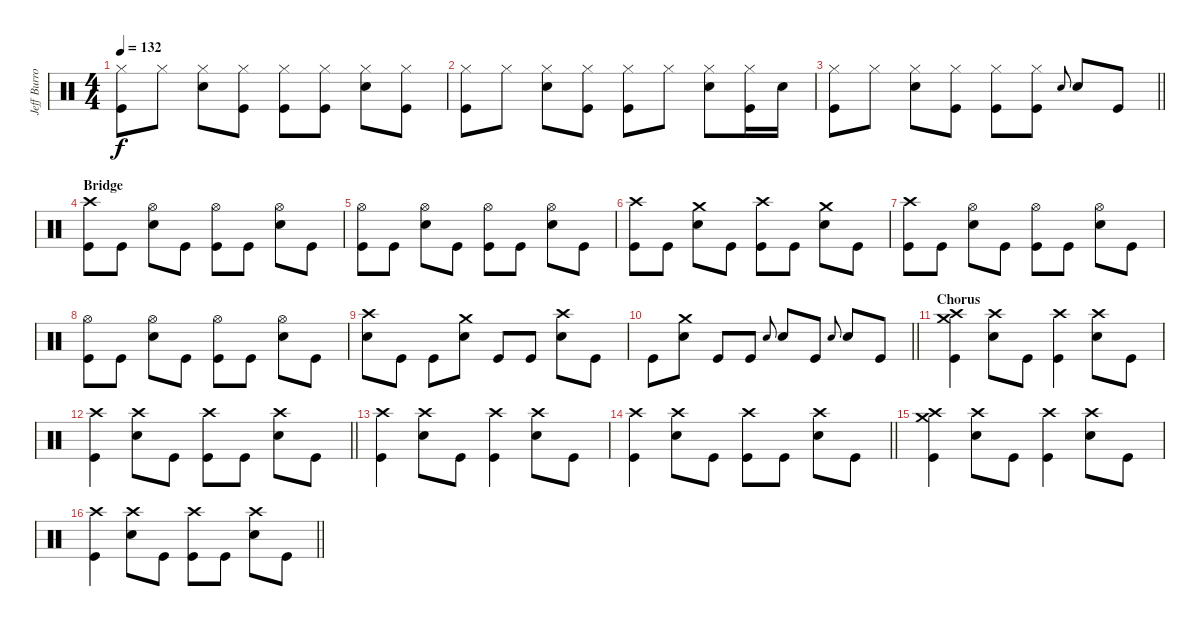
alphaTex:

\track ("Jeff Burrows (Percussion)" "Jeff Burro") {instrument percussion}
\staff {score}
\articulation defaults
\ts (4 4)
\tempo 132
\clef neutral
\ks c
("Hi-Hat (closed)" "Kick (hit)").8{dy f} "Hi-Hat (closed)".8 ("Hi-Hat (closed)" "Snare (hit) 2").8 ("Hi-Hat (closed)" "Kick (hit)").8 ("Hi-Hat (closed)" "Kick (hit)").8 ("Hi-Hat (closed)" "Kick (hit)").8 ("Hi-Hat (closed)" "Snare (hit) 2").8 ("Hi-Hat (closed)" "Kick (hit)").8 |
("Hi-Hat (closed)" "Kick (hit)").8 "Hi-Hat (closed)".8 ("Hi-Hat (closed)" "Snare (hit) 2").8 ("Hi-Hat (closed)" "Kick (hit)").8 ("Hi-Hat (closed)" "Kick (hit)").8 "Hi-Hat (closed)".8 ("Hi-Hat (closed)" "Snare (hit) 2").8 ("Hi-Hat (closed)" "Kick (hit)").16 "Snare (hit) 2".16 |
\barLineRight lightlight
("Hi-Hat (closed)" "Kick (hit)").8 "Hi-Hat (closed)".8 ("Hi-Hat (closed)" "Snare (hit) 2").8 ("Hi-Hat (closed)" "Kick (hit)").8 ("Hi-Hat (closed)" "Kick (hit)").8 ("Hi-Hat (closed)" "Kick (hit)").8 "Snare (hit) 2".8{gr onbeat} "Snare (hit) 2".8 "Kick (hit)".8 |
\section ("" "Bridge")
("Crash high (hit)" "Kick (hit)").8 "Kick (hit)".8 ("Hi-Hat (open)" "Snare (hit) 2").8 "Kick (hit)".8 ("Hi-Hat (open)" "Kick (hit)").8 "Kick (hit)".8 ("Hi-Hat (open)" "Snare (hit) 2").8 "Kick (hit)".8 |
("Hi-Hat (open)" "Kick (hit)").8 "Kick (hit)".8 ("Hi-Hat (open)" "Snare (hit) 2").8 "Kick (hit)".8 ("Hi-Hat (open)" "Kick (hit)").8 "Kick (hit)".8 ("Hi-Hat (open)" "Snare (hit) 2").8 "Kick (hit)".8 |
("Crash high (hit)" "Kick (hit)").8 "Kick (hit)".8 ("Crash medium (hit)" "Snare (hit) 2").8 "Kick (hit)".8 ("Crash high (hit)" "Kick (hit)").8 "Kick (hit)".8 ("Crash medium (hit)" "Snare (hit) 2").8 "Kick (hit)".8 |
("Crash high (hit)" "Kick (hit)").8 "Kick (hit)".8 ("Hi-Hat (open)" "Snare (hit) 2").8 "Kick (hit)".8 ("Hi-Hat (open)" "Kick (hit)").8 "Kick (hit)".8 ("Hi-Hat (open)" "Snare (hit) 2").8 "Kick (hit)".8 |
("Hi-Hat (open)" "Kick (hit)").8 "Kick (hit)".8 ("Hi-Hat (open)" "Snare (hit) 2").8 "Kick (hit)".8 ("Hi-Hat (open)" "Kick (hit)").8 "Kick (hit)".8 ("Hi-Hat (open)" "Snare (hit) 2").8 "Kick (hit)".8 |
("Crash high (hit)" "Snare (hit) 2").8 "Kick (hit)".8 "Kick (hit)".8 ("Crash medium (hit)" "Snare (hit) 2").8 "Kick (hit)".8 "Kick (hit)".8 ("Crash high (hit)" "Snare (hit) 2").8 "Kick (hit)".8 |
\barLineRight lightlight "Kick (hit)".8
("Crash medium (hit)" "Snare (hit) 2").8 "Kick (hit)".8 "Kick (hit)".8 "Snare (hit) 2".8{gr onbeat} "Snare (hit) 2".8 "Kick (hit)".8 "Snare (hit) 2".8{gr onbeat} "Snare (hit) 2".8 "Kick (hit)".8 |
\section ("" "Chorus")
("Crash medium (hit)" "Crash high (hit)" "Kick (hit)").4 ("Crash high (hit)" "Snare (hit) 2").8 "Kick (hit)".8 ("Crash high (hit)" "Kick (hit)").4 ("Crash high (hit)" "Snare (hit) 2").8 "Kick (hit)".8 |
\barLineRight lightlight
("Crash high (hit)" "Kick (hit)").4 ("Crash high (hit)" "Snare (hit) 2").8 "Kick (hit)".8 ("Crash high (hit)" "Kick (hit)").8 "Kick (hit)".8 ("Crash high (hit)" "Snare (hit) 2").8 "Kick (hit)".8 |
("Crash high (hit)" "Kick (hit)").4 ("Crash high (hit)" "Snare (hit) 2").8 "Kick (hit)".8 ("Crash high (hit)" "Kick (hit)").4 ("Crash high (hit)" "Snare (hit) 2").8 "Kick (hit)".8 |
\barLineRight lightlight
("Crash high (hit)" "Kick (hit)").4 ("Crash high (hit)" "Snare (hit) 2").8 "Kick (hit)".8 ("Crash high (hit)" "Kick (hit)").8 "Kick (hit)".8 ("Crash high (hit)" "Snare (hit) 2").8 "Kick (hit)".8 |
("Crash medium (hit)" "Crash high (hit)" "Kick (hit)").4 ("Crash high (hit)" "Snare (hit) 2").8 "Kick (hit)".8 ("Crash high (hit)" "Kick (hit)").4 ("Crash high (hit)" "Snare (hit) 2").8 "Kick (hit)".8 |
\barLineRight lightlight
("Crash high (hit)" "Kick (hit)").4 ("Crash high (hit)" "Snare (hit) 2").8 "Kick (hit)".8 ("Crash high (hit)" "Kick (hit)").8 "Kick (hit)".8 ("Crash high (hit)" "Snare (hit) 2").8 "Kick (hit)".8
